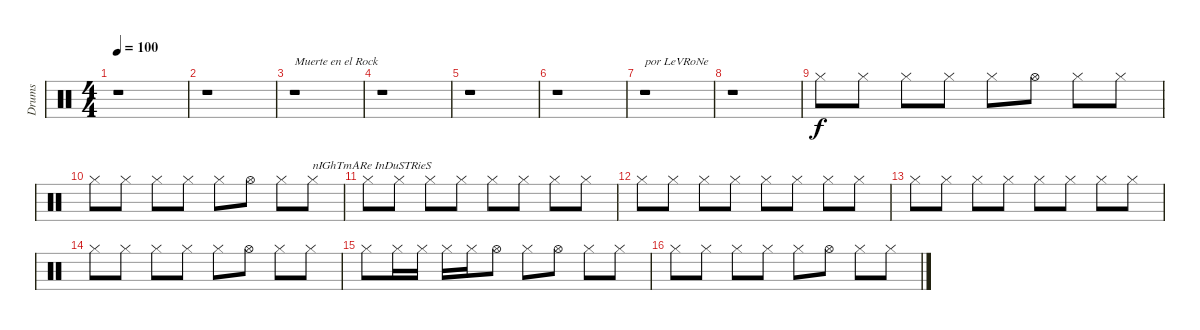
\track ("Drums" "Drums") {instrument percussion}
\staff {score}
\articulation defaults
\ts (4 4)
\tempo 100
\clef neutral
\ks c
r.1{dy f} |
r.1 |
r.1{txt "Muerte en el Rock"} |
r.1 |
r.1 |
r.1 |
r.1{txt "por LeVRoNe"} |
r.1 |
"Hi-Hat (closed)".8 "Hi-Hat (closed)".8 "Hi-Hat (closed)".8 "Hi-Hat (closed)".8 "Hi-Hat (closed)".8 "Hi-Hat (open)".8 "Hi-Hat (closed)".8 "Hi-Hat (closed)".8 |
"Hi-Hat (closed)".8 "Hi-Hat (closed)".8 "Hi-Hat (closed)".8 "Hi-Hat (closed)".8 "Hi-Hat (closed)".8 "Hi-Hat (open)".8 "Hi-Hat (closed)".8 "Hi-Hat (closed)".8{txt "nIGhTmARe InDuSTRieS"} |
"Hi-Hat (closed)".8 "Hi-Hat (closed)".8 "Hi-Hat (closed)".8 "Hi-Hat (closed)".8 "Hi-Hat (closed)".8 "Hi-Hat (closed)".8 "Hi-Hat (closed)".8 "Hi-Hat (closed)".8 |
"Hi-Hat (closed)".8 "Hi-Hat (closed)".8 "Hi-Hat (closed)".8 "Hi-Hat (closed)".8 "Hi-Hat (closed)".8 "Hi-Hat (closed)".8 "Hi-Hat (closed)".8 "Hi-Hat (closed)".8 |
"Hi-Hat (closed)".8 "Hi-Hat (closed)".8 "Hi-Hat (closed)".8 "Hi-Hat (closed)".8 "Hi-Hat (closed)".8 "Hi-Hat (closed)".8 "Hi-Hat (closed)".8 "Hi-Hat (closed)".8 |
"Hi-Hat (closed)".8 "Hi-Hat (closed)".8 "Hi-Hat (closed)".8 "Hi-Hat (closed)".8 "Hi-Hat (closed)".8 "Hi-Hat (open)".8 "Hi-Hat (closed)".8 "Hi-Hat (closed)".8 |
"Hi-Hat (closed)".8 "Hi-Hat (closed)".16 "Hi-Hat (closed)".16 "Hi-Hat (closed)".16 "Hi-Hat (closed)".16 "Hi-Hat (open)".8 "Hi-Hat (closed)".8 "Hi-Hat (open)".8 "Hi-Hat (closed)".8 "Hi-Hat (closed)".8 |
"Hi-Hat (closed)".8 "Hi-Hat (closed)".8 "Hi-Hat (closed)".8 "Hi-Hat (closed)".8 "Hi-Hat (closed)".8 "Hi-Hat (open)".8 "Hi-Hat (closed)".8 "Hi-Hat (closed)".8
